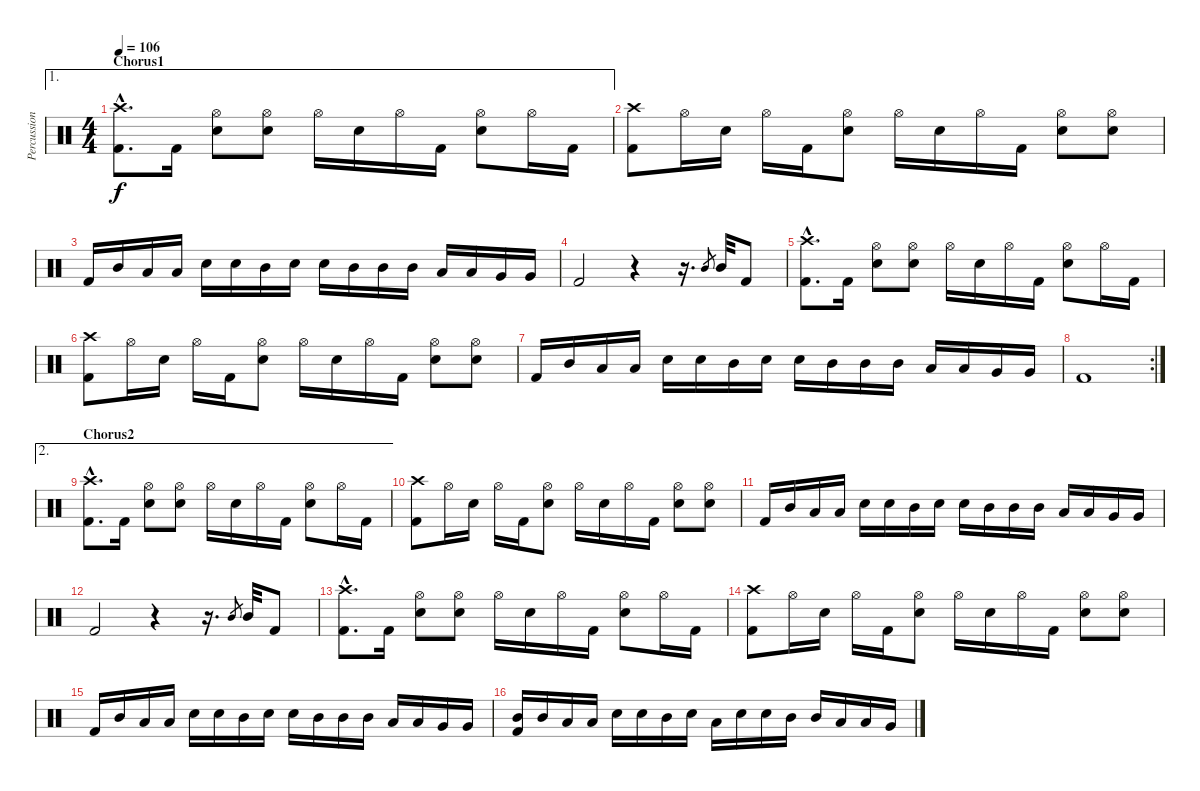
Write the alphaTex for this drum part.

\track ("Percussion" "Percussion") {instrument percussion}
\staff {score}
\articulation defaults
\ae 1
\ts (4 4)
\section ("" "Chorus1")
\tempo 106
\clef neutral
\ks c
("Kick (hit) 2"{hac} "Crash high (hit)"{hac}).8{d dy f} "Kick (hit) 2".16 ("Snare (hit) 2" "Hi-Hat (open)").8 ("Snare (hit) 2" "Hi-Hat (open)").8 "Hi-Hat (open)".16 "Snare (hit) 2".16 "Hi-Hat (open)".16 "Kick (hit) 2".16 ("Snare (hit) 2" "Hi-Hat (open)").8 "Hi-Hat (open)".16 "Kick (hit) 2".16 |
("Kick (hit) 2" "Crash high (hit)").8 "Hi-Hat (open)".16 "Snare (hit) 2".16 "Hi-Hat (open)".16 "Kick (hit) 2".16 ("Snare (hit) 2" "Hi-Hat (open)").8 "Hi-Hat (open)".16 "Snare (hit) 2".16 "Hi-Hat (open)".16 "Kick (hit) 2".16 ("Snare (hit) 2" "Hi-Hat (open)").8 ("Snare (hit) 2" "Hi-Hat (open)").8 |
"Kick (hit) 2".16 "Mid Tom (hit)".16 "Low Tom (hit)".16 "Low Tom (hit)".16 "Snare (hit) 2".16 "Snare (hit) 2".16 "Mid Tom (hit)".16 "Snare (hit) 2".16 "Snare (hit) 2".16 "Mid Tom (hit)".16 "Mid Tom (hit)".16 "Mid Tom (hit)".16 "Low Tom (hit)".16 "Low Tom (hit)".16 "Very Low Tom (hit)".16 "Very Low Tom (hit)".16 |
"Kick (hit) 2".2 r.4 r.16{d} "Mid Tom (hit)".8{gr} "Mid Tom (hit)".32 "Kick (hit) 2".8 |
("Kick (hit) 2"{hac} "Crash high (hit)"{hac}).8{d} "Kick (hit) 2".16 ("Snare (hit) 2" "Hi-Hat (open)").8 ("Snare (hit) 2" "Hi-Hat (open)").8 "Hi-Hat (open)".16 "Snare (hit) 2".16 "Hi-Hat (open)".16 "Kick (hit) 2".16 ("Snare (hit) 2" "Hi-Hat (open)").8 "Hi-Hat (open)".16 "Kick (hit) 2".16 |
("Kick (hit) 2" "Crash high (hit)").8 "Hi-Hat (open)".16 "Snare (hit) 2".16 "Hi-Hat (open)".16 "Kick (hit) 2".16 ("Snare (hit) 2" "Hi-Hat (open)").8 "Hi-Hat (open)".16 "Snare (hit) 2".16 "Hi-Hat (open)".16 "Kick (hit) 2".16 ("Snare (hit) 2" "Hi-Hat (open)").8 ("Snare (hit) 2" "Hi-Hat (open)").8 |
"Kick (hit) 2".16 "Mid Tom (hit)".16 "Low Tom (hit)".16 "Low Tom (hit)".16 "Snare (hit) 2".16 "Snare (hit) 2".16 "Mid Tom (hit)".16 "Snare (hit) 2".16 "Snare (hit) 2".16 "Mid Tom (hit)".16 "Mid Tom (hit)".16 "Mid Tom (hit)".16 "Low Tom (hit)".16 "Low Tom (hit)".16 "Very Low Tom (hit)".16 "Very Low Tom (hit)".16 |
\rc 2 "Kick (hit) 2".1
|
\ae 2
\section ("" "Chorus2")
("Kick (hit) 2"{hac} "Crash high (hit)"{hac}).8{d} "Kick (hit) 2".16 ("Snare (hit) 2" "Hi-Hat (open)").8 ("Snare (hit) 2" "Hi-Hat (open)").8 "Hi-Hat (open)".16 "Snare (hit) 2".16 "Hi-Hat (open)".16 "Kick (hit) 2".16 ("Snare (hit) 2" "Hi-Hat (open)").8 "Hi-Hat (open)".16 "Kick (hit) 2".16 |
("Kick (hit) 2" "Crash high (hit)").8 "Hi-Hat (open)".16 "Snare (hit) 2".16 "Hi-Hat (open)".16 "Kick (hit) 2".16 ("Snare (hit) 2" "Hi-Hat (open)").8 "Hi-Hat (open)".16 "Snare (hit) 2".16 "Hi-Hat (open)".16 "Kick (hit) 2".16 ("Snare (hit) 2" "Hi-Hat (open)").8 ("Snare (hit) 2" "Hi-Hat (open)").8 |
"Kick (hit) 2".16 "Mid Tom (hit)".16 "Low Tom (hit)".16 "Low Tom (hit)".16 "Snare (hit) 2".16 "Snare (hit) 2".16 "Mid Tom (hit)".16 "Snare (hit) 2".16 "Snare (hit) 2".16 "Mid Tom (hit)".16 "Mid Tom (hit)".16 "Mid Tom (hit)".16 "Low Tom (hit)".16 "Low Tom (hit)".16 "Very Low Tom (hit)".16 "Very Low Tom (hit)".16 |
"Kick (hit) 2".2 r.4 r.16{d} "Mid Tom (hit)".8{gr} "Mid Tom (hit)".32 "Kick (hit) 2".8 |
("Kick (hit) 2"{hac} "Crash high (hit)"{hac}).8{d} "Kick (hit) 2".16 ("Snare (hit) 2" "Hi-Hat (open)").8 ("Snare (hit) 2" "Hi-Hat (open)").8 "Hi-Hat (open)".16 "Snare (hit) 2".16 "Hi-Hat (open)".16 "Kick (hit) 2".16 ("Snare (hit) 2" "Hi-Hat (open)").8 "Hi-Hat (open)".16 "Kick (hit) 2".16 |
("Kick (hit) 2" "Crash high (hit)").8 "Hi-Hat (open)".16 "Snare (hit) 2".16 "Hi-Hat (open)".16 "Kick (hit) 2".16 ("Snare (hit) 2" "Hi-Hat (open)").8 "Hi-Hat (open)".16 "Snare (hit) 2".16 "Hi-Hat (open)".16 "Kick (hit) 2".16 ("Snare (hit) 2" "Hi-Hat (open)").8 ("Snare (hit) 2" "Hi-Hat (open)").8 |
"Kick (hit) 2".16 "Mid Tom (hit)".16 "Low Tom (hit)".16 "Low Tom (hit)".16 "Snare (hit) 2".16 "Snare (hit) 2".16 "Mid Tom (hit)".16 "Snare (hit) 2".16 "Snare (hit) 2".16 "Mid Tom (hit)".16 "Mid Tom (hit)".16 "Mid Tom (hit)".16 "Low Tom (hit)".16 "Low Tom (hit)".16 "Very Low Tom (hit)".16 "Very Low Tom (hit)".16 |
("Kick (hit) 2" "Mid Tom (hit)").16 "Mid Tom (hit)".16 "Low Tom (hit)".16 "Low Tom (hit)".16 "Snare (hit) 2".16 "Snare (hit) 2".16 "Mid Tom (hit)".16 "Snare (hit) 2".16 "Low Tom (hit)".16 "Snare (hit) 2".16 "Snare (hit) 2".16 "Mid Tom (hit)".16 "Mid Tom (hit)".16 "Low Tom (hit)".16 "Low Tom (hit)".16 "Very Low Tom (hit)".16
